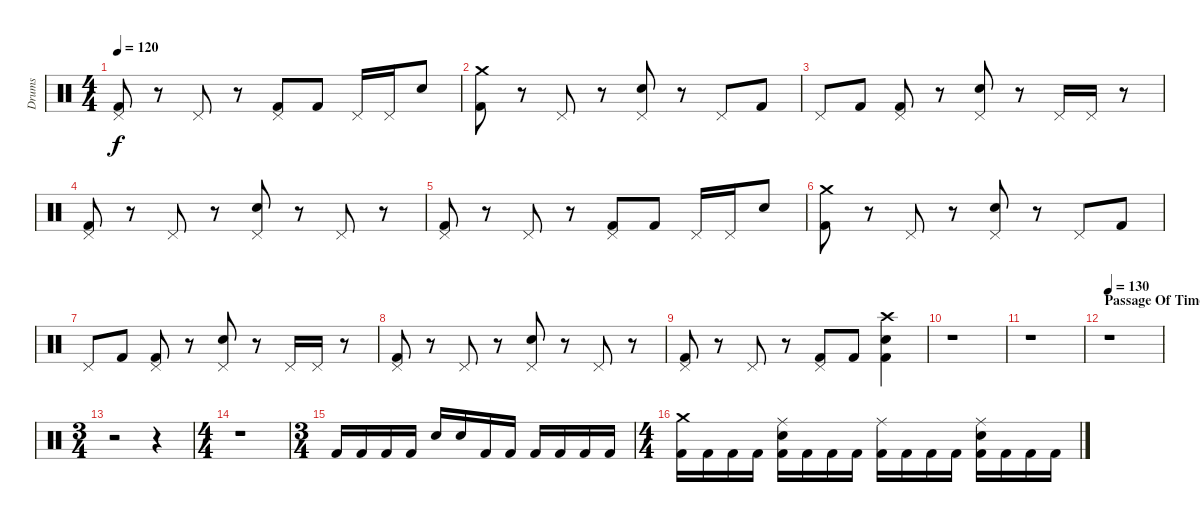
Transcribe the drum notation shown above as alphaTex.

\track ("Drums" "Drums") {instrument percussion}
\staff {score}
\articulation defaults
\ts (4 4)
\tempo 120
\clef neutral
\ks c
("Pedal Hi-Hat (hit)" "Kick (hit) 2").8{dy f} r.8 "Pedal Hi-Hat (hit)".8 r.8 ("Pedal Hi-Hat (hit)" "Kick (hit) 2").8 "Kick (hit) 2".8 "Pedal Hi-Hat (hit)".16 "Pedal Hi-Hat (hit)".16 "Electric Snare (hit)".8 |
\section ("" "")
("Crash medium (hit)" "Kick (hit) 2").8 r.8 "Pedal Hi-Hat (hit)".8 r.8 ("Pedal Hi-Hat (hit)" "Electric Snare (hit)").8 r.8 "Pedal Hi-Hat (hit)".8 "Kick (hit) 2".8 |
"Pedal Hi-Hat (hit)".8 "Kick (hit) 2".8 ("Pedal Hi-Hat (hit)" "Kick (hit) 2").8 r.8 ("Pedal Hi-Hat (hit)" "Electric Snare (hit)").8 r.8 "Pedal Hi-Hat (hit)".16 "Pedal Hi-Hat (hit)".16 r.8 |
("Pedal Hi-Hat (hit)" "Kick (hit) 2").8 r.8 "Pedal Hi-Hat (hit)".8 r.8 ("Pedal Hi-Hat (hit)" "Electric Snare (hit)").8 r.8 "Pedal Hi-Hat (hit)".8 r.8 |
("Pedal Hi-Hat (hit)" "Kick (hit) 2").8 r.8 "Pedal Hi-Hat (hit)".8 r.8 ("Pedal Hi-Hat (hit)" "Kick (hit) 2").8 "Kick (hit) 2".8 "Pedal Hi-Hat (hit)".16 "Pedal Hi-Hat (hit)".16 "Electric Snare (hit)".8 |
("Crash medium (hit)" "Kick (hit) 2").8 r.8 "Pedal Hi-Hat (hit)".8 r.8 ("Pedal Hi-Hat (hit)" "Electric Snare (hit)").8 r.8 "Pedal Hi-Hat (hit)".8 "Kick (hit) 2".8 |
"Pedal Hi-Hat (hit)".8 "Kick (hit) 2".8 ("Pedal Hi-Hat (hit)" "Kick (hit) 2").8 r.8 ("Pedal Hi-Hat (hit)" "Electric Snare (hit)").8 r.8 "Pedal Hi-Hat (hit)".16 "Pedal Hi-Hat (hit)".16 r.8 |
("Pedal Hi-Hat (hit)" "Kick (hit) 2").8 r.8 "Pedal Hi-Hat (hit)".8 r.8 ("Pedal Hi-Hat (hit)" "Electric Snare (hit)").8 r.8 "Pedal Hi-Hat (hit)".8 r.8 |
("Pedal Hi-Hat (hit)" "Kick (hit) 2").8 r.8 "Pedal Hi-Hat (hit)".8 r.8 ("Pedal Hi-Hat (hit)" "Kick (hit) 2").8 "Kick (hit) 2".8 ("Crash high (hit)" "Electric Snare (hit)" "Kick (hit) 2").4 |
r.1 |
r.1 |
\section ("" "Passage Of Time VI")
\tempo 130
r.1 |
\ts (3 4)
r.2 r.4 |
\ts (4 4)
r.1 |
\ts (3 4)
"Kick (hit) 2".16 "Kick (hit) 2".16 "Kick (hit) 2".16 "Kick (hit) 2".16 "Electric Snare (hit)".16 "Electric Snare (hit)".16 "Kick (hit) 2".16 "Kick (hit) 2".16 "Kick (hit) 2".16 "Kick (hit) 2".16 "Kick (hit) 2".16 "Kick (hit) 2".16 |
\ts (4 4)
("Crash medium (hit)" "Kick (hit) 2").16 "Kick (hit) 2".16 "Kick (hit) 2".16 "Kick (hit) 2".16 ("Ride (middle)" "Electric Snare (hit)" "Kick (hit) 2").16 "Kick (hit) 2".16 "Kick (hit) 2".16 "Kick (hit) 2".16 ("Ride (middle)" "Kick (hit) 2").16 "Kick (hit) 2".16 "Kick (hit) 2".16 "Kick (hit) 2".16 ("Ride (middle)" "Electric Snare (hit)" "Kick (hit) 2").16 "Kick (hit) 2".16 "Kick (hit) 2".16 "Kick (hit) 2".16
